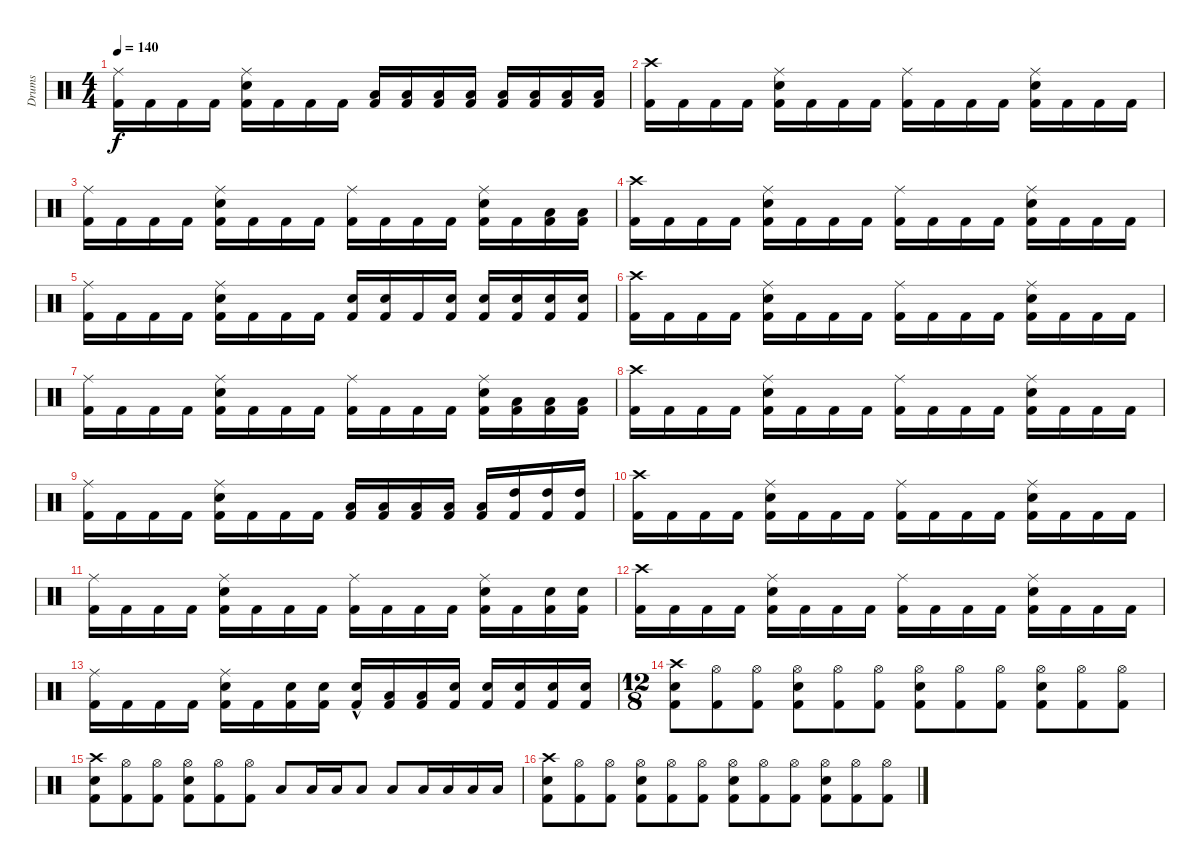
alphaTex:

\track ("Drums" "Drums") {instrument percussion}
\staff {score}
\articulation defaults
\ts (4 4)
\tempo 140
\clef neutral
\ks c
("Ride (middle)" "Kick (hit) 2").16{dy f} "Kick (hit) 2".16 "Kick (hit) 2".16 "Kick (hit) 2".16 ("Kick (hit) 2" "Ride (middle)" "Snare (hit) 2").16 "Kick (hit) 2".16 "Kick (hit) 2".16 "Kick (hit) 2".16 ("Low Tom (hit)" "Kick (hit) 2").16 ("Kick (hit) 2" "Low Tom (hit)").16 ("Low Tom (hit)" "Kick (hit) 2").16 ("Low Tom (hit)" "Kick (hit) 2").16 ("Low Tom (hit)" "Kick (hit) 2").16 ("Low Floor Tom (hit)" "Kick (hit) 2").16 ("Low Floor Tom (hit)" "Kick (hit) 2").16 ("Low Floor Tom (hit)" "Kick (hit) 2").16 |
("Crash high (hit)" "Kick (hit) 2").16 "Kick (hit) 2".16 "Kick (hit) 2".16 "Kick (hit) 2".16 ("Kick (hit) 2" "Ride (middle)" "Snare (hit) 2").16 "Kick (hit) 2".16 "Kick (hit) 2".16 "Kick (hit) 2".16 ("Ride (middle)" "Kick (hit) 2").16 "Kick (hit) 2".16 "Kick (hit) 2".16 "Kick (hit) 2".16 ("Kick (hit) 2" "Ride (middle)" "Snare (hit) 2").16 "Kick (hit) 2".16 "Kick (hit) 2".16 "Kick (hit) 2".16 |
("Ride (middle)" "Kick (hit) 2").16 "Kick (hit) 2".16 "Kick (hit) 2".16 "Kick (hit) 2".16 ("Kick (hit) 2" "Ride (middle)" "Snare (hit) 2").16 "Kick (hit) 2".16 "Kick (hit) 2".16 "Kick (hit) 2".16 ("Ride (middle)" "Kick (hit) 2").16 "Kick (hit) 2".16 "Kick (hit) 2".16 "Kick (hit) 2".16 ("Kick (hit) 2" "Ride (middle)" "Snare (hit) 2").16 "Kick (hit) 2".16 ("Low Floor Tom (hit)" "Kick (hit) 2").16 ("Kick (hit) 2" "Low Floor Tom (hit)").16 |
("Crash high (hit)" "Kick (hit) 2").16 "Kick (hit) 2".16 "Kick (hit) 2".16 "Kick (hit) 2".16 ("Kick (hit) 2" "Ride (middle)" "Snare (hit) 2").16 "Kick (hit) 2".16 "Kick (hit) 2".16 "Kick (hit) 2".16 ("Ride (middle)" "Kick (hit) 2").16 "Kick (hit) 2".16 "Kick (hit) 2".16 "Kick (hit) 2".16 ("Kick (hit) 2" "Ride (middle)" "Snare (hit) 2").16 "Kick (hit) 2".16 "Kick (hit) 2".16 "Kick (hit) 2".16 |
("Ride (middle)" "Kick (hit) 2").16 "Kick (hit) 2".16 "Kick (hit) 2".16 "Kick (hit) 2".16 ("Kick (hit) 2" "Ride (middle)" "Snare (hit) 2").16 "Kick (hit) 2".16 "Kick (hit) 2".16 "Kick (hit) 2".16 ("Snare (hit) 2" "Kick (hit) 2").16 ("Kick (hit) 2" "Snare (hit) 2").16 "Kick (hit) 2".16 ("Kick (hit) 2" "Snare (hit) 2").16 ("Snare (hit) 2" "Kick (hit) 2").16 ("Snare (hit) 2" "Kick (hit) 2").16 ("Snare (hit) 2" "Kick (hit) 2").16 ("Snare (hit) 2" "Kick (hit) 2").16 |
("Crash high (hit)" "Kick (hit) 2").16 "Kick (hit) 2".16 "Kick (hit) 2".16 "Kick (hit) 2".16 ("Kick (hit) 2" "Ride (middle)" "Snare (hit) 2").16 "Kick (hit) 2".16 "Kick (hit) 2".16 "Kick (hit) 2".16 ("Ride (middle)" "Kick (hit) 2").16 "Kick (hit) 2".16 "Kick (hit) 2".16 "Kick (hit) 2".16 ("Kick (hit) 2" "Ride (middle)" "Snare (hit) 2").16 "Kick (hit) 2".16 "Kick (hit) 2".16 "Kick (hit) 2".16 |
("Ride (middle)" "Kick (hit) 2").16 "Kick (hit) 2".16 "Kick (hit) 2".16 "Kick (hit) 2".16 ("Kick (hit) 2" "Ride (middle)" "Snare (hit) 2").16 "Kick (hit) 2".16 "Kick (hit) 2".16 "Kick (hit) 2".16 ("Ride (middle)" "Kick (hit) 2").16 "Kick (hit) 2".16 "Kick (hit) 2".16 "Kick (hit) 2".16 ("Kick (hit) 2" "Ride (middle)" "Snare (hit) 2").16 ("Low Tom (hit)" "Kick (hit) 2").16 ("Kick (hit) 2" "Low Tom (hit)").16 ("Low Tom (hit)" "Kick (hit) 2").16 |
("Crash high (hit)" "Kick (hit) 2").16 "Kick (hit) 2".16 "Kick (hit) 2".16 "Kick (hit) 2".16 ("Kick (hit) 2" "Ride (middle)" "Snare (hit) 2").16 "Kick (hit) 2".16 "Kick (hit) 2".16 "Kick (hit) 2".16 ("Ride (middle)" "Kick (hit) 2").16 "Kick (hit) 2".16 "Kick (hit) 2".16 "Kick (hit) 2".16 ("Kick (hit) 2" "Ride (middle)" "Snare (hit) 2").16 "Kick (hit) 2".16 "Kick (hit) 2".16 "Kick (hit) 2".16 |
("Ride (middle)" "Kick (hit) 2").16 "Kick (hit) 2".16 "Kick (hit) 2".16 "Kick (hit) 2".16 ("Kick (hit) 2" "Ride (middle)" "Snare (hit) 2").16 "Kick (hit) 2".16 "Kick (hit) 2".16 "Kick (hit) 2".16 ("Low Tom (hit)" "Kick (hit) 2").16 ("Kick (hit) 2" "Low Tom (hit)").16 ("Low Tom (hit)" "Kick (hit) 2").16 ("Low Tom (hit)" "Kick (hit) 2").16 ("Low Tom (hit)" "Kick (hit) 2").16 ("High Tom (hit)" "Kick (hit) 2").16 ("High Tom (hit)" "Kick (hit) 2").16 ("High Tom (hit)" "Kick (hit) 2").16 |
("Crash high (hit)" "Kick (hit) 2").16 "Kick (hit) 2".16 "Kick (hit) 2".16 "Kick (hit) 2".16 ("Kick (hit) 2" "Ride (middle)" "Snare (hit) 2").16 "Kick (hit) 2".16 "Kick (hit) 2".16 "Kick (hit) 2".16 ("Ride (middle)" "Kick (hit) 2").16 "Kick (hit) 2".16 "Kick (hit) 2".16 "Kick (hit) 2".16 ("Kick (hit) 2" "Ride (middle)" "Snare (hit) 2").16 "Kick (hit) 2".16 "Kick (hit) 2".16 "Kick (hit) 2".16 |
("Ride (middle)" "Kick (hit) 2").16 "Kick (hit) 2".16 "Kick (hit) 2".16 "Kick (hit) 2".16 ("Kick (hit) 2" "Ride (middle)" "Snare (hit) 2").16 "Kick (hit) 2".16 "Kick (hit) 2".16 "Kick (hit) 2".16 ("Ride (middle)" "Kick (hit) 2").16 "Kick (hit) 2".16 "Kick (hit) 2".16 "Kick (hit) 2".16 ("Kick (hit) 2" "Ride (middle)" "Snare (hit) 2").16 "Kick (hit) 2".16 ("Snare (hit) 2" "Kick (hit) 2").16 ("Kick (hit) 2" "Snare (hit) 2").16 |
("Crash high (hit)" "Kick (hit) 2").16 "Kick (hit) 2".16 "Kick (hit) 2".16 "Kick (hit) 2".16 ("Kick (hit) 2" "Ride (middle)" "Snare (hit) 2").16 "Kick (hit) 2".16 "Kick (hit) 2".16 "Kick (hit) 2".16 ("Ride (middle)" "Kick (hit) 2").16 "Kick (hit) 2".16 "Kick (hit) 2".16 "Kick (hit) 2".16 ("Kick (hit) 2" "Ride (middle)" "Snare (hit) 2").16 "Kick (hit) 2".16 "Kick (hit) 2".16 "Kick (hit) 2".16 |
("Ride (middle)" "Kick (hit) 2").16 "Kick (hit) 2".16 "Kick (hit) 2".16 "Kick (hit) 2".16 ("Kick (hit) 2" "Ride (middle)" "Snare (hit) 2").16 "Kick (hit) 2".16 ("Snare (hit) 2" "Kick (hit) 2").16 ("Kick (hit) 2" "Snare (hit) 2").16 ("Snare (hit) 2"{hac} "Kick (hit) 2").16 ("Low Floor Tom (hit)" "Kick (hit) 2").16 ("Low Floor Tom (hit)" "Kick (hit) 2").16 ("Snare (hit) 2" "Kick (hit) 2").16 ("Snare (hit) 2" "Kick (hit) 2").16 ("Snare (hit) 2" "Kick (hit) 2").16 ("Snare (hit) 2" "Kick (hit) 2").16 ("Snare (hit) 2" "Kick (hit) 2").16 |
\ts (12 8)
("Snare (hit) 2" "Crash high (hit)" "Kick (hit) 2").8 ("Kick (hit) 2" "Hi-Hat (open)").8 ("Hi-Hat (open)" "Kick (hit) 2").8 ("Snare (hit) 2" "Hi-Hat (open)" "Kick (hit) 2").8 ("Kick (hit) 2" "Hi-Hat (open)").8 ("Hi-Hat (open)" "Kick (hit) 2").8 ("Snare (hit) 2" "Hi-Hat (open)" "Kick (hit) 2").8 ("Kick (hit) 2" "Hi-Hat (open)").8 ("Hi-Hat (open)" "Kick (hit) 2").8 ("Snare (hit) 2" "Hi-Hat (open)" "Kick (hit) 2").8 ("Kick (hit) 2" "Hi-Hat (open)").8 ("Hi-Hat (open)" "Kick (hit) 2").8 |
("Snare (hit) 2" "Crash high (hit)" "Kick (hit) 2").8 ("Kick (hit) 2" "Hi-Hat (open)").8 ("Hi-Hat (open)" "Kick (hit) 2").8 ("Snare (hit) 2" "Hi-Hat (open)" "Kick (hit) 2").8 ("Kick (hit) 2" "Hi-Hat (open)").8 ("Hi-Hat (open)" "Kick (hit) 2").8 "Low Tom (hit)".8 "Low Tom (hit)".16 "Low Tom (hit)".16 "Low Tom (hit)".8 "Low Floor Tom (hit)".8 "Low Floor Tom (hit)".16 "Low Floor Tom (hit)".16 "Low Floor Tom (hit)".16 "Low Floor Tom (hit)".16 |
("Kick (hit) 2" "Crash high (hit)" "Snare (hit) 2").8 ("Kick (hit) 2" "Hi-Hat (open)").8 ("Hi-Hat (open)" "Kick (hit) 2").8 ("Snare (hit) 2" "Hi-Hat (open)" "Kick (hit) 2").8 ("Kick (hit) 2" "Hi-Hat (open)").8 ("Hi-Hat (open)" "Kick (hit) 2").8 ("Snare (hit) 2" "Hi-Hat (open)" "Kick (hit) 2").8 ("Kick (hit) 2" "Hi-Hat (open)").8 ("Hi-Hat (open)" "Kick (hit) 2").8 ("Snare (hit) 2" "Hi-Hat (open)" "Kick (hit) 2").8 ("Kick (hit) 2" "Hi-Hat (open)").8 ("Hi-Hat (open)" "Kick (hit) 2").8
